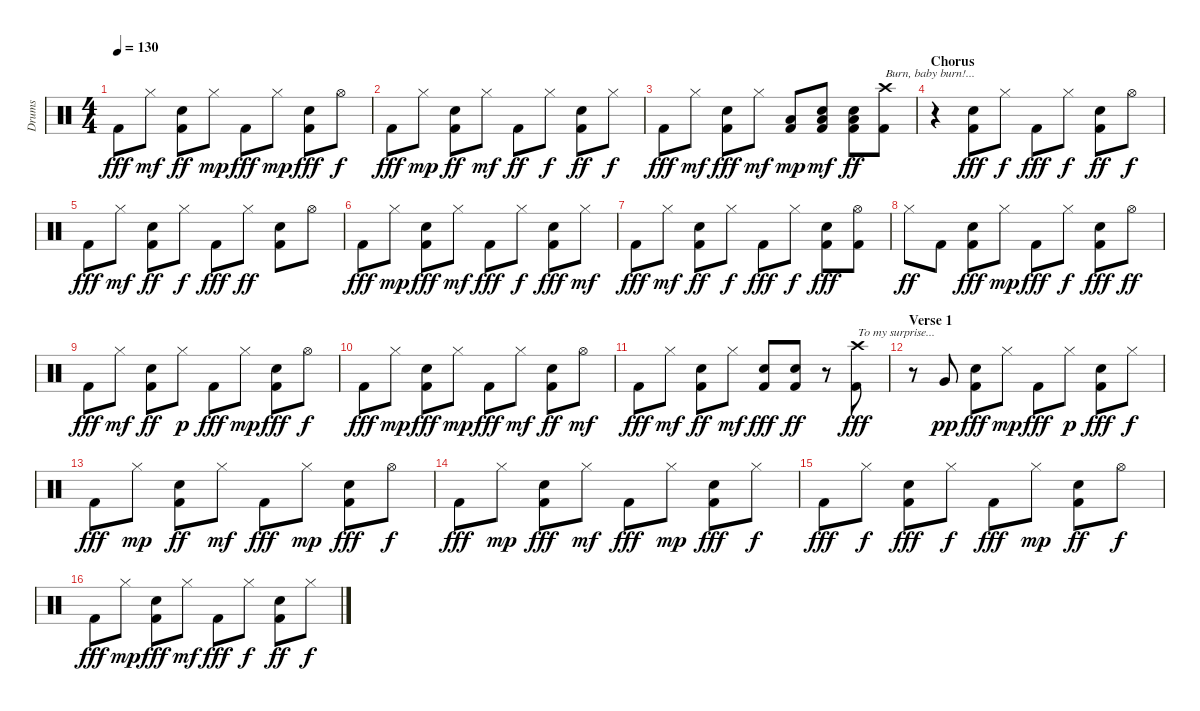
\track ("Drums" "Drums") {instrument percussion}
\staff {score}
\articulation defaults
\ts (4 4)
\tempo 130
\clef neutral
\ks c "Kick (hit) 2".8{dy fff} "Hi-Hat (closed)".8{dy mf}
("Kick (hit) 2" "Snare (hit) 2").8{dy ff} "Hi-Hat (closed)".8{dy mp} "Kick (hit) 2".8{dy fff} "Hi-Hat (closed)".8{dy mp} ("Kick (hit) 2" "Snare (hit) 2").8{dy fff} "Hi-Hat (open)".8{dy f} |
"Kick (hit) 2".8{dy fff} "Hi-Hat (closed)".8{dy mp} ("Kick (hit) 2" "Snare (hit) 2").8{dy ff} "Hi-Hat (closed)".8{dy mf} "Kick (hit) 2".8{dy ff} "Hi-Hat (closed)".8{dy f} ("Kick (hit) 2" "Snare (hit) 2").8{dy ff} "Hi-Hat (closed)".8{dy f} |
"Kick (hit) 2".8{dy fff} "Hi-Hat (closed)".8{dy mf} ("Kick (hit) 2" "Snare (hit) 2").8{dy fff} "Hi-Hat (closed)".8{dy mf} ("Kick (hit) 2" "Low Floor Tom (hit)").8{dy mp} ("Kick (hit) 2" "Snare (hit) 2" "Low Floor Tom (hit)").8{dy mf} ("Kick (hit) 2" "Snare (hit) 2" "Low Floor Tom (hit)").8{dy ff} ("Kick (hit) 2" "Crash high (hit)").8{txt "Burn, baby burn!..."} |
\section ("" "Chorus")
r.4 ("Kick (hit) 2" "Snare (hit) 2").8{dy fff} "Hi-Hat (closed)".8{dy f} "Kick (hit) 2".8{dy fff} "Hi-Hat (closed)".8{dy f} ("Kick (hit) 2" "Snare (hit) 2").8{dy ff} "Hi-Hat (open)".8{dy f} |
"Kick (hit) 2".8{dy fff} "Hi-Hat (closed)".8{dy mf} ("Kick (hit) 2" "Snare (hit) 2").8{dy ff} "Hi-Hat (closed)".8{dy f} "Kick (hit) 2".8{dy fff} "Hi-Hat (closed)".8{dy ff} ("Kick (hit) 2" "Snare (hit) 2").8 "Hi-Hat (open)".8 |
"Kick (hit) 2".8{dy fff} "Hi-Hat (closed)".8{dy mp} ("Kick (hit) 2" "Snare (hit) 2").8{dy fff} "Hi-Hat (closed)".8{dy mf} "Kick (hit) 2".8{dy fff} "Hi-Hat (closed)".8{dy f} ("Kick (hit) 2" "Snare (hit) 2").8{dy fff} "Hi-Hat (closed)".8{dy mf} |
"Kick (hit) 2".8{dy fff} "Hi-Hat (closed)".8{dy mf} ("Kick (hit) 2" "Snare (hit) 2").8{dy ff} "Hi-Hat (closed)".8{dy f} "Kick (hit) 2".8{dy fff} "Hi-Hat (closed)".8{dy f} ("Kick (hit) 2" "Snare (hit) 2").8{dy fff} ("Kick (hit) 2" "Hi-Hat (open)").8 |
"Hi-Hat (closed)".8{dy ff} "Kick (hit) 2".8 ("Kick (hit) 2" "Snare (hit) 2").8{dy fff} "Hi-Hat (closed)".8{dy mp} "Kick (hit) 2".8{dy fff} "Hi-Hat (closed)".8{dy f} ("Kick (hit) 2" "Snare (hit) 2").8{dy fff} "Hi-Hat (open)".8{dy ff} |
"Kick (hit) 2".8{dy fff} "Hi-Hat (closed)".8{dy mf} ("Kick (hit) 2" "Snare (hit) 2").8{dy ff} "Hi-Hat (closed)".8{dy p} "Kick (hit) 2".8{dy fff} "Hi-Hat (closed)".8{dy mp} ("Kick (hit) 2" "Snare (hit) 2").8{dy fff} "Hi-Hat (open)".8{dy f} |
"Kick (hit) 2".8{dy fff} "Hi-Hat (closed)".8{dy mp} ("Kick (hit) 2" "Snare (hit) 2").8{dy fff} "Hi-Hat (closed)".8{dy mp} "Kick (hit) 2".8{dy fff} "Hi-Hat (closed)".8{dy mf} ("Kick (hit) 2" "Snare (hit) 2").8{dy ff} "Hi-Hat (open)".8{dy mf} |
"Kick (hit) 2".8{dy fff} "Hi-Hat (closed)".8{dy mf} ("Kick (hit) 2" "Snare (hit) 2").8{dy ff} "Hi-Hat (closed)".8{dy mf} ("Kick (hit) 2" "Snare (hit) 2").8{dy fff} ("Kick (hit) 2" "Snare (hit) 2").8{dy ff} r.8 ("Kick (hit) 2" "Crash high (hit)").8{txt "To my surprise..." dy fff} |
\section ("" "Verse 1")
r.8 "Very Low Tom (hit)".8{dy pp} ("Kick (hit) 2" "Snare (hit) 2").8{dy fff} "Hi-Hat (closed)".8{dy mp} "Kick (hit) 2".8{dy fff} "Hi-Hat (closed)".8{dy p} ("Kick (hit) 2" "Snare (hit) 2").8{dy fff} "Hi-Hat (closed)".8{dy f} |
"Kick (hit) 2".8{dy fff} "Hi-Hat (closed)".8{dy mp} ("Kick (hit) 2" "Snare (hit) 2").8{dy ff} "Hi-Hat (closed)".8{dy mf} "Kick (hit) 2".8{dy fff} "Hi-Hat (closed)".8{dy mp} ("Kick (hit) 2" "Snare (hit) 2").8{dy fff} "Hi-Hat (open)".8{dy f} |
"Kick (hit) 2".8{dy fff} "Hi-Hat (closed)".8{dy mp} ("Kick (hit) 2" "Snare (hit) 2").8{dy fff} "Hi-Hat (closed)".8{dy mf} "Kick (hit) 2".8{dy fff} "Hi-Hat (closed)".8{dy mp} ("Kick (hit) 2" "Snare (hit) 2").8{dy fff} "Hi-Hat (closed)".8{dy f} |
"Kick (hit) 2".8{dy fff} "Hi-Hat (closed)".8{dy f} ("Kick (hit) 2" "Snare (hit) 2").8{dy fff} "Hi-Hat (closed)".8{dy f} "Kick (hit) 2".8{dy fff} "Hi-Hat (closed)".8{dy mp} ("Kick (hit) 2" "Snare (hit) 2").8{dy ff} "Hi-Hat (open)".8{dy f} |
"Kick (hit) 2".8{dy fff} "Hi-Hat (closed)".8{dy mp} ("Kick (hit) 2" "Snare (hit) 2").8{dy fff} "Hi-Hat (closed)".8{dy mf} "Kick (hit) 2".8{dy fff} "Hi-Hat (closed)".8{dy f} ("Kick (hit) 2" "Snare (hit) 2").8{dy ff} "Hi-Hat (closed)".8{dy f}
